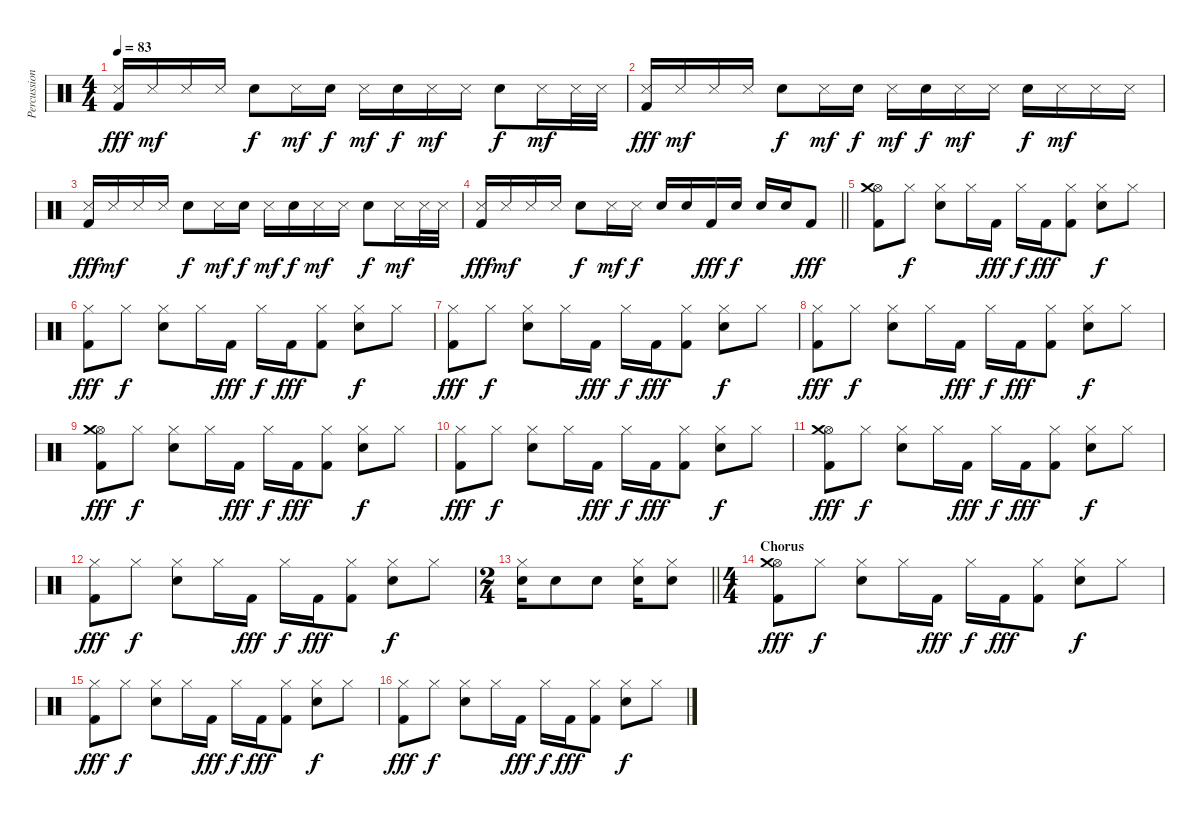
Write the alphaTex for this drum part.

\track ("Percussion" "Percussion") {instrument percussion}
\staff {score}
\articulation defaults
\ts (4 4)
\tempo 83
\clef neutral
\ks c
("Snare (side stick) 3" "Kick (hit) 2").16{dy fff} "Snare (side stick) 3".16{dy mf} "Snare (side stick) 3".16 "Snare (side stick) 3".16 "Electric Snare (hit)".8{dy f} "Snare (side stick) 3".16{dy mf} "Electric Snare (hit)".16{dy f} "Snare (side stick) 3".16{dy mf} "Electric Snare (hit)".16{dy f} "Snare (side stick) 3".16{dy mf} "Snare (side stick) 3".16 "Electric Snare (hit)".8{dy f} "Snare (side stick) 3".16{dy mf} "Snare (side stick) 3".32 "Snare (side stick) 3".32 |
("Snare (side stick) 3" "Kick (hit) 2").16{dy fff} "Snare (side stick) 3".16{dy mf} "Snare (side stick) 3".16 "Snare (side stick) 3".16 "Electric Snare (hit)".8{dy f} "Snare (side stick) 3".16{dy mf} "Electric Snare (hit)".16{dy f} "Snare (side stick) 3".16{dy mf} "Electric Snare (hit)".16{dy f} "Snare (side stick) 3".16{dy mf} "Snare (side stick) 3".16 "Electric Snare (hit)".16{dy f} "Snare (side stick) 3".16{dy mf} "Snare (side stick) 3".16 "Snare (side stick) 3".16 |
("Snare (side stick) 3" "Kick (hit) 2").16{dy fff} "Snare (side stick) 3".16{dy mf} "Snare (side stick) 3".16 "Snare (side stick) 3".16 "Electric Snare (hit)".8{dy f} "Snare (side stick) 3".16{dy mf} "Electric Snare (hit)".16{dy f} "Snare (side stick) 3".16{dy mf} "Electric Snare (hit)".16{dy f} "Snare (side stick) 3".16{dy mf} "Snare (side stick) 3".16 "Electric Snare (hit)".8{dy f} "Snare (side stick) 3".16{dy mf} "Snare (side stick) 3".32 "Snare (side stick) 3".32 |
\barLineRight lightlight
("Snare (side stick) 3" "Kick (hit) 2").16{dy fff} "Snare (side stick) 3".16{dy mf} "Snare (side stick) 3".16 "Snare (side stick) 3".16 "Electric Snare (hit)".8{dy f} "Snare (side stick) 3".16{dy mf} "Snare (side stick) 3".16{dy f} "Electric Snare (hit)".16 "Electric Snare (hit)".16 "Kick (hit) 2".16{dy fff} "Electric Snare (hit)".16{dy f} "Electric Snare (hit)".16 "Electric Snare (hit)".16 "Kick (hit) 2".8{dy fff} |
("Kick (hit) 2" "Hi-Hat (open)" "Crash medium (hit)").8 "Hi-Hat (closed)".8{dy f} ("Electric Snare (hit)" "Hi-Hat (closed)").8 "Hi-Hat (closed)".16 "Kick (hit) 2".16{dy fff} "Hi-Hat (closed)".16{dy f} "Kick (hit) 2".16{dy fff} ("Kick (hit) 2" "Hi-Hat (closed)").8 ("Electric Snare (hit)" "Hi-Hat (closed)").8{dy f} "Hi-Hat (closed)".8 |
("Kick (hit) 2" "Hi-Hat (closed)").8{dy fff} "Hi-Hat (closed)".8{dy f} ("Electric Snare (hit)" "Hi-Hat (closed)").8 "Hi-Hat (closed)".16 "Kick (hit) 2".16{dy fff} "Hi-Hat (closed)".16{dy f} "Kick (hit) 2".16{dy fff} ("Kick (hit) 2" "Hi-Hat (closed)").8 ("Electric Snare (hit)" "Hi-Hat (closed)").8{dy f} "Hi-Hat (closed)".8 |
("Kick (hit) 2" "Hi-Hat (closed)").8{dy fff} "Hi-Hat (closed)".8{dy f} ("Electric Snare (hit)" "Hi-Hat (closed)").8 "Hi-Hat (closed)".16 "Kick (hit) 2".16{dy fff} "Hi-Hat (closed)".16{dy f} "Kick (hit) 2".16{dy fff} ("Kick (hit) 2" "Hi-Hat (closed)").8 ("Electric Snare (hit)" "Hi-Hat (closed)").8{dy f} "Hi-Hat (closed)".8 |
("Kick (hit) 2" "Hi-Hat (closed)").8{dy fff} "Hi-Hat (closed)".8{dy f} ("Electric Snare (hit)" "Hi-Hat (closed)").8 "Hi-Hat (closed)".16 "Kick (hit) 2".16{dy fff} "Hi-Hat (closed)".16{dy f} "Kick (hit) 2".16{dy fff} ("Kick (hit) 2" "Hi-Hat (closed)").8 ("Electric Snare (hit)" "Hi-Hat (closed)").8{dy f} "Hi-Hat (closed)".8 |
("Kick (hit) 2" "Hi-Hat (open)" "Crash medium (hit)").8{dy fff} "Hi-Hat (closed)".8{dy f} ("Electric Snare (hit)" "Hi-Hat (closed)").8 "Hi-Hat (closed)".16 "Kick (hit) 2".16{dy fff} "Hi-Hat (closed)".16{dy f} "Kick (hit) 2".16{dy fff} ("Kick (hit) 2" "Hi-Hat (closed)").8 ("Electric Snare (hit)" "Hi-Hat (closed)").8{dy f} "Hi-Hat (closed)".8 |
("Kick (hit) 2" "Hi-Hat (closed)").8{dy fff} "Hi-Hat (closed)".8{dy f} ("Electric Snare (hit)" "Hi-Hat (closed)").8 "Hi-Hat (closed)".16 "Kick (hit) 2".16{dy fff} "Hi-Hat (closed)".16{dy f} "Kick (hit) 2".16{dy fff} ("Kick (hit) 2" "Hi-Hat (closed)").8 ("Electric Snare (hit)" "Hi-Hat (closed)").8{dy f} "Hi-Hat (closed)".8 |
("Kick (hit) 2" "Hi-Hat (open)" "Crash medium (hit)").8{dy fff} "Hi-Hat (closed)".8{dy f} ("Electric Snare (hit)" "Hi-Hat (closed)").8 "Hi-Hat (closed)".16 "Kick (hit) 2".16{dy fff} "Hi-Hat (closed)".16{dy f} "Kick (hit) 2".16{dy fff} ("Kick (hit) 2" "Hi-Hat (closed)").8 ("Electric Snare (hit)" "Hi-Hat (closed)").8{dy f} "Hi-Hat (closed)".8 |
("Kick (hit) 2" "Hi-Hat (closed)").8{dy fff} "Hi-Hat (closed)".8{dy f} ("Electric Snare (hit)" "Hi-Hat (closed)").8 "Hi-Hat (closed)".16 "Kick (hit) 2".16{dy fff} "Hi-Hat (closed)".16{dy f} "Kick (hit) 2".16{dy fff} ("Kick (hit) 2" "Hi-Hat (closed)").8 ("Electric Snare (hit)" "Hi-Hat (closed)").8{dy f} "Hi-Hat (closed)".8 |
\ts (2 4)
\barLineRight lightlight
("Electric Snare (hit)" "Hi-Hat (closed)").16 "Electric Snare (hit)".8 "Electric Snare (hit)".8 ("Electric Snare (hit)" "Hi-Hat (closed)").16 ("Electric Snare (hit)" "Hi-Hat (closed)").8 |
\ts (4 4)
\section ("" "Chorus")
("Kick (hit) 2" "Hi-Hat (open)" "Crash medium (hit)").8{dy fff} "Hi-Hat (closed)".8{dy f} ("Electric Snare (hit)" "Hi-Hat (closed)").8 "Hi-Hat (closed)".16 "Kick (hit) 2".16{dy fff} "Hi-Hat (closed)".16{dy f} "Kick (hit) 2".16{dy fff} ("Kick (hit) 2" "Hi-Hat (closed)").8 ("Electric Snare (hit)" "Hi-Hat (closed)").8{dy f} "Hi-Hat (closed)".8 |
("Kick (hit) 2" "Hi-Hat (closed)").8{dy fff} "Hi-Hat (closed)".8{dy f} ("Electric Snare (hit)" "Hi-Hat (closed)").8 "Hi-Hat (closed)".16 "Kick (hit) 2".16{dy fff} "Hi-Hat (closed)".16{dy f} "Kick (hit) 2".16{dy fff} ("Kick (hit) 2" "Hi-Hat (closed)").8 ("Electric Snare (hit)" "Hi-Hat (closed)").8{dy f} "Hi-Hat (closed)".8 |
("Kick (hit) 2" "Hi-Hat (closed)").8{dy fff} "Hi-Hat (closed)".8{dy f} ("Electric Snare (hit)" "Hi-Hat (closed)").8 "Hi-Hat (closed)".16 "Kick (hit) 2".16{dy fff} "Hi-Hat (closed)".16{dy f} "Kick (hit) 2".16{dy fff} ("Kick (hit) 2" "Hi-Hat (closed)").8 ("Electric Snare (hit)" "Hi-Hat (closed)").8{dy f} "Hi-Hat (closed)".8
